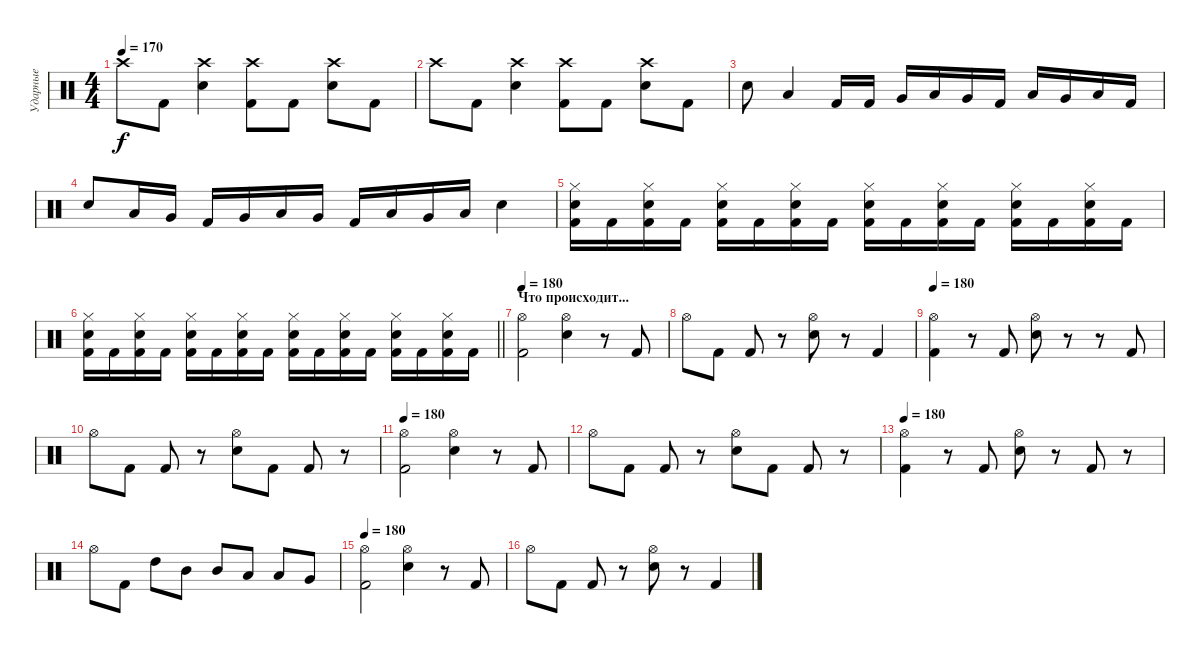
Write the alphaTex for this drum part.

\track ("Ударные" "Ударные") {instrument percussion}
\staff {score}
\articulation defaults
\ts (4 4)
\tempo 170
\clef neutral
\ks c "Crash high (hit)".8{dy f} "Kick (hit) 2".8
("Crash high (hit)" "Electric Snare (hit)").4 ("Crash high (hit)" "Kick (hit) 2").8 "Kick (hit) 2".8 ("Crash high (hit)" "Electric Snare (hit)").8 "Kick (hit) 2".8 |
"Crash high (hit)".8 "Kick (hit) 2".8 ("Crash high (hit)" "Electric Snare (hit)").4 ("Crash high (hit)" "Kick (hit) 2").8 "Kick (hit) 2".8 ("Crash high (hit)" "Electric Snare (hit)").8 "Kick (hit) 2".8 |
"Electric Snare (hit)".8 "Low Floor Tom (hit)".4 "Kick (hit) 2".16 "Kick (hit) 2".16 "Very Low Tom (hit)".16 "Low Floor Tom (hit)".16 "Very Low Tom (hit)".16 "Kick (hit) 2".16 "Low Floor Tom (hit)".16 "Very Low Tom (hit)".16 "Low Floor Tom (hit)".16 "Kick (hit) 2".16 |
"Electric Snare (hit)".8 "Low Floor Tom (hit)".16 "Very Low Tom (hit)".16 "Kick (hit) 2".16 "Very Low Tom (hit)".16 "Low Floor Tom (hit)".16 "Very Low Tom (hit)".16 "Kick (hit) 2".16 "Low Floor Tom (hit)".16 "Very Low Tom (hit)".16 "Low Floor Tom (hit)".16 "Electric Snare (hit)".4 |
("Hi-Hat (closed)" "Electric Snare (hit)" "Kick (hit) 2").16 "Kick (hit) 2".16 ("Hi-Hat (closed)" "Electric Snare (hit)" "Kick (hit) 2").16 "Kick (hit) 2".16 ("Hi-Hat (closed)" "Electric Snare (hit)" "Kick (hit) 2").16 "Kick (hit) 2".16 ("Hi-Hat (closed)" "Electric Snare (hit)" "Kick (hit) 2").16 "Kick (hit) 2".16 ("Hi-Hat (closed)" "Electric Snare (hit)" "Kick (hit) 2").16 "Kick (hit) 2".16 ("Hi-Hat (closed)" "Electric Snare (hit)" "Kick (hit) 2").16 "Kick (hit) 2".16 ("Hi-Hat (closed)" "Electric Snare (hit)" "Kick (hit) 2").16 "Kick (hit) 2".16 ("Hi-Hat (closed)" "Electric Snare (hit)" "Kick (hit) 2").16 "Kick (hit) 2".16 |
\barLineRight lightlight
("Hi-Hat (closed)" "Electric Snare (hit)" "Kick (hit) 2").16 "Kick (hit) 2".16 ("Hi-Hat (closed)" "Electric Snare (hit)" "Kick (hit) 2").16 "Kick (hit) 2".16 ("Hi-Hat (closed)" "Electric Snare (hit)" "Kick (hit) 2").16 "Kick (hit) 2".16 ("Hi-Hat (closed)" "Electric Snare (hit)" "Kick (hit) 2").16 "Kick (hit) 2".16 ("Hi-Hat (closed)" "Electric Snare (hit)" "Kick (hit) 2").16 "Kick (hit) 2".16 ("Hi-Hat (closed)" "Electric Snare (hit)" "Kick (hit) 2").16 "Kick (hit) 2".16 ("Hi-Hat (closed)" "Electric Snare (hit)" "Kick (hit) 2").16 "Kick (hit) 2".16 ("Hi-Hat (closed)" "Electric Snare (hit)" "Kick (hit) 2").16 "Kick (hit) 2".16 |
\section ("" "Что происходит...")
\tempo 180
("Hi-Hat (open)" "Kick (hit) 2").2 ("Hi-Hat (open)" "Electric Snare (hit)").4 r.8 "Kick (hit) 2".8 |
"Hi-Hat (open)".8 "Kick (hit) 2".8 "Kick (hit) 2".8 r.8 ("Hi-Hat (open)" "Electric Snare (hit)").8 r.8 "Kick (hit) 2".4 |
\tempo 180
("Hi-Hat (open)" "Kick (hit) 2").4 r.8 "Kick (hit) 2".8 ("Hi-Hat (open)" "Electric Snare (hit)").8 r.8 r.8 "Kick (hit) 2".8 |
"Hi-Hat (open)".8 "Kick (hit) 2".8 "Kick (hit) 2".8 r.8 ("Hi-Hat (open)" "Electric Snare (hit)").8 "Kick (hit) 2".8 "Kick (hit) 2".8 r.8 |
\tempo 180
("Hi-Hat (open)" "Kick (hit) 2").2 ("Hi-Hat (open)" "Electric Snare (hit)").4 r.8 "Kick (hit) 2".8 |
"Hi-Hat (open)".8 "Kick (hit) 2".8 "Kick (hit) 2".8 r.8 ("Hi-Hat (open)" "Electric Snare (hit)").8 "Kick (hit) 2".8 "Kick (hit) 2".8 r.8 |
\tempo 180
("Hi-Hat (open)" "Kick (hit) 2").4 r.8 "Kick (hit) 2".8 ("Hi-Hat (open)" "Electric Snare (hit)").8 r.8 "Kick (hit) 2".8 r.8 |
"Hi-Hat (open)".8 "Kick (hit) 2".8 "High Tom (hit)".8 "Mid Tom (hit)".8 "Mid Tom (hit)".8 "Low Tom (hit)".8 "Low Tom (hit)".8 "Very Low Tom (hit)".8 |
\tempo 180
("Hi-Hat (open)" "Kick (hit) 2").2 ("Hi-Hat (open)" "Electric Snare (hit)").4 r.8 "Kick (hit) 2".8 |
"Hi-Hat (open)".8 "Kick (hit) 2".8 "Kick (hit) 2".8 r.8 ("Hi-Hat (open)" "Electric Snare (hit)").8 r.8 "Kick (hit) 2".4
